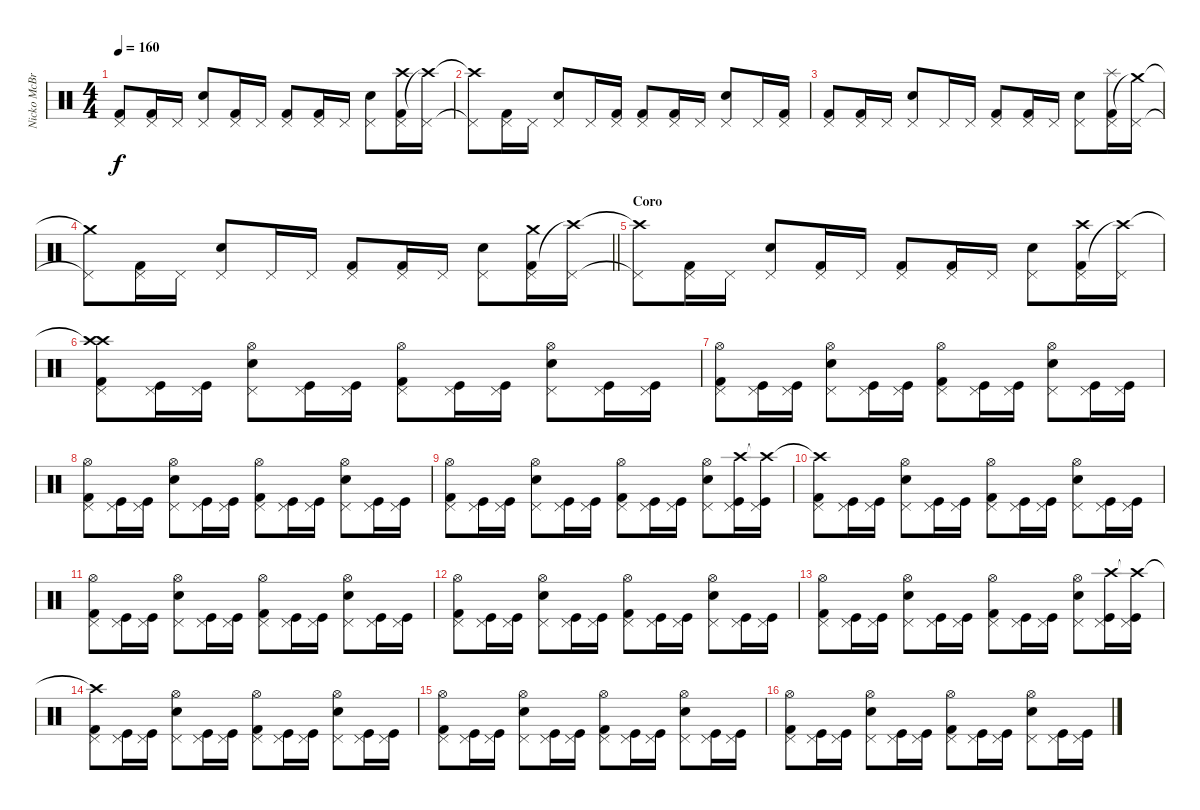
\track ("Nicko McBrain" "Nicko McBr") {instrument percussion}
\staff {score}
\articulation defaults
\ts (4 4)
\tempo 160
\clef neutral
\ks c
("Pedal Hi-Hat (hit)" "Kick (hit) 2").8{dy f} ("Pedal Hi-Hat (hit)" "Kick (hit) 2").16 "Pedal Hi-Hat (hit)".16 ("Pedal Hi-Hat (hit)" "Snare (hit) 2").8 ("Pedal Hi-Hat (hit)" "Kick (hit) 2").16 "Pedal Hi-Hat (hit)".16 ("Pedal Hi-Hat (hit)" "Kick (hit) 2").8 ("Pedal Hi-Hat (hit)" "Kick (hit) 2").16 "Pedal Hi-Hat (hit)".16 ("Pedal Hi-Hat (hit)" "Snare (hit) 2").8 ("Pedal Hi-Hat (hit)" "Kick (hit) 2" "Crash high (hit)").16 ("Pedal Hi-Hat (hit)" "Crash high (hit)"{t}).16 |
("Pedal Hi-Hat (hit)"{t} "Crash high (hit)"{t}).8 ("Pedal Hi-Hat (hit)" "Kick (hit) 2").16 "Pedal Hi-Hat (hit)".16 ("Pedal Hi-Hat (hit)" "Snare (hit) 2").8 "Pedal Hi-Hat (hit)".16 ("Pedal Hi-Hat (hit)" "Kick (hit) 2").16 ("Pedal Hi-Hat (hit)" "Kick (hit) 2").8 ("Pedal Hi-Hat (hit)" "Kick (hit) 2").16 "Pedal Hi-Hat (hit)".16 ("Pedal Hi-Hat (hit)" "Snare (hit) 2").8 "Pedal Hi-Hat (hit)".16 ("Pedal Hi-Hat (hit)" "Kick (hit) 2").16 |
("Pedal Hi-Hat (hit)" "Kick (hit) 2").8 ("Pedal Hi-Hat (hit)" "Kick (hit) 2").16 "Pedal Hi-Hat (hit)".16 ("Pedal Hi-Hat (hit)" "Snare (hit) 2").8 "Pedal Hi-Hat (hit)".16 "Pedal Hi-Hat (hit)".16 ("Pedal Hi-Hat (hit)" "Kick (hit) 2").8 ("Pedal Hi-Hat (hit)" "Kick (hit) 2").16 "Pedal Hi-Hat (hit)".16 ("Pedal Hi-Hat (hit)" "Snare (hit) 2").8 ("Pedal Hi-Hat (hit)" "Kick (hit) 2" "Splash (hit)").16 ("Pedal Hi-Hat (hit)" "Crash medium (hit)"{t}).16 |
\barLineRight lightlight
("Pedal Hi-Hat (hit)"{t} "Crash medium (hit)"{t}).8 ("Pedal Hi-Hat (hit)" "Kick (hit) 2").16 "Pedal Hi-Hat (hit)".16 ("Pedal Hi-Hat (hit)" "Snare (hit) 2").8 "Pedal Hi-Hat (hit)".16 "Pedal Hi-Hat (hit)".16 ("Pedal Hi-Hat (hit)" "Kick (hit) 2").8 ("Pedal Hi-Hat (hit)" "Kick (hit) 2").16 "Pedal Hi-Hat (hit)".16 ("Pedal Hi-Hat (hit)" "Snare (hit) 2").8 ("Pedal Hi-Hat (hit)" "Kick (hit) 2" "Crash medium (hit)").16 ("Pedal Hi-Hat (hit)" "Crash high (hit)"{t}).16 |
\section ("" "Coro")
("Pedal Hi-Hat (hit)"{t} "Crash high (hit)"{t}).8 ("Pedal Hi-Hat (hit)" "Kick (hit) 2").16 "Pedal Hi-Hat (hit)".16 ("Pedal Hi-Hat (hit)" "Snare (hit) 2").8 ("Pedal Hi-Hat (hit)" "Kick (hit) 2").16 "Pedal Hi-Hat (hit)".16 ("Pedal Hi-Hat (hit)" "Kick (hit) 2").8 ("Pedal Hi-Hat (hit)" "Kick (hit) 2").16 "Pedal Hi-Hat (hit)".16 ("Pedal Hi-Hat (hit)" "Snare (hit) 2").8 ("Pedal Hi-Hat (hit)" "Kick (hit) 2" "Crash high (hit)").16 ("Pedal Hi-Hat (hit)" "Crash high (hit)"{t}).16 |
("Pedal Hi-Hat (hit)" "Crash high (hit)"{t} "Kick (hit) 2" "Crash high (hit)").8 ("Kick (hit)" "Pedal Hi-Hat (hit)").16 ("Kick (hit)" "Pedal Hi-Hat (hit)").16 ("Snare (hit) 2" "Pedal Hi-Hat (hit)" "Hi-Hat (open)").8 ("Kick (hit)" "Pedal Hi-Hat (hit)").16 ("Kick (hit)" "Pedal Hi-Hat (hit)").16 ("Kick (hit) 2" "Pedal Hi-Hat (hit)" "Hi-Hat (open)").8 ("Kick (hit)" "Pedal Hi-Hat (hit)").16 ("Kick (hit)" "Pedal Hi-Hat (hit)").16 ("Snare (hit) 2" "Pedal Hi-Hat (hit)" "Hi-Hat (open)").8 ("Kick (hit)" "Pedal Hi-Hat (hit)").16 ("Kick (hit)" "Pedal Hi-Hat (hit)").16 |
("Kick (hit) 2" "Pedal Hi-Hat (hit)" "Hi-Hat (open)").8 ("Kick (hit)" "Pedal Hi-Hat (hit)").16 ("Kick (hit)" "Pedal Hi-Hat (hit)").16 ("Snare (hit) 2" "Pedal Hi-Hat (hit)" "Hi-Hat (open)").8 ("Kick (hit)" "Pedal Hi-Hat (hit)").16 ("Kick (hit)" "Pedal Hi-Hat (hit)").16 ("Kick (hit) 2" "Pedal Hi-Hat (hit)" "Hi-Hat (open)").8 ("Kick (hit)" "Pedal Hi-Hat (hit)").16 ("Kick (hit)" "Pedal Hi-Hat (hit)").16 ("Snare (hit) 2" "Pedal Hi-Hat (hit)" "Hi-Hat (open)").8 ("Kick (hit)" "Pedal Hi-Hat (hit)").16 ("Kick (hit)" "Pedal Hi-Hat (hit)").16 |
("Kick (hit) 2" "Pedal Hi-Hat (hit)" "Hi-Hat (open)").8 ("Kick (hit)" "Pedal Hi-Hat (hit)").16 ("Kick (hit)" "Pedal Hi-Hat (hit)").16 ("Snare (hit) 2" "Pedal Hi-Hat (hit)" "Hi-Hat (open)").8 ("Kick (hit)" "Pedal Hi-Hat (hit)").16 ("Kick (hit)" "Pedal Hi-Hat (hit)").16 ("Kick (hit) 2" "Pedal Hi-Hat (hit)" "Hi-Hat (open)").8 ("Kick (hit)" "Pedal Hi-Hat (hit)").16 ("Kick (hit)" "Pedal Hi-Hat (hit)").16 ("Snare (hit) 2" "Pedal Hi-Hat (hit)" "Hi-Hat (open)").8 ("Kick (hit)" "Pedal Hi-Hat (hit)").16 ("Kick (hit)" "Pedal Hi-Hat (hit)").16 |
("Kick (hit) 2" "Pedal Hi-Hat (hit)" "Hi-Hat (open)").8 ("Kick (hit)" "Pedal Hi-Hat (hit)").16 ("Kick (hit)" "Pedal Hi-Hat (hit)").16 ("Snare (hit) 2" "Pedal Hi-Hat (hit)" "Hi-Hat (open)").8 ("Kick (hit)" "Pedal Hi-Hat (hit)").16 ("Kick (hit)" "Pedal Hi-Hat (hit)").16 ("Kick (hit) 2" "Pedal Hi-Hat (hit)" "Hi-Hat (open)").8 ("Kick (hit)" "Pedal Hi-Hat (hit)").16 ("Kick (hit)" "Pedal Hi-Hat (hit)").16 ("Snare (hit) 2" "Pedal Hi-Hat (hit)" "Hi-Hat (open)").8 ("Kick (hit)" "Pedal Hi-Hat (hit)" "Crash high (hit)").16 ("Kick (hit)" "Pedal Hi-Hat (hit)" "Crash high (hit)"{t}).16 |
("Kick (hit) 2" "Pedal Hi-Hat (hit)" "Crash high (hit)"{t}).8 ("Kick (hit)" "Pedal Hi-Hat (hit)").16 ("Kick (hit)" "Pedal Hi-Hat (hit)").16 ("Snare (hit) 2" "Pedal Hi-Hat (hit)" "Hi-Hat (open)").8 ("Kick (hit)" "Pedal Hi-Hat (hit)").16 ("Kick (hit)" "Pedal Hi-Hat (hit)").16 ("Kick (hit) 2" "Pedal Hi-Hat (hit)" "Hi-Hat (open)").8 ("Kick (hit)" "Pedal Hi-Hat (hit)").16 ("Kick (hit)" "Pedal Hi-Hat (hit)").16 ("Snare (hit) 2" "Pedal Hi-Hat (hit)" "Hi-Hat (open)").8 ("Kick (hit)" "Pedal Hi-Hat (hit)").16 ("Kick (hit)" "Pedal Hi-Hat (hit)").16 |
("Kick (hit) 2" "Pedal Hi-Hat (hit)" "Hi-Hat (open)").8 ("Kick (hit)" "Pedal Hi-Hat (hit)").16 ("Kick (hit)" "Pedal Hi-Hat (hit)").16 ("Snare (hit) 2" "Pedal Hi-Hat (hit)" "Hi-Hat (open)").8 ("Kick (hit)" "Pedal Hi-Hat (hit)").16 ("Kick (hit)" "Pedal Hi-Hat (hit)").16 ("Kick (hit) 2" "Pedal Hi-Hat (hit)" "Hi-Hat (open)").8 ("Kick (hit)" "Pedal Hi-Hat (hit)").16 ("Kick (hit)" "Pedal Hi-Hat (hit)").16 ("Snare (hit) 2" "Pedal Hi-Hat (hit)" "Hi-Hat (open)").8 ("Kick (hit)" "Pedal Hi-Hat (hit)").16 ("Kick (hit)" "Pedal Hi-Hat (hit)").16 |
("Kick (hit) 2" "Pedal Hi-Hat (hit)" "Hi-Hat (open)").8 ("Kick (hit)" "Pedal Hi-Hat (hit)").16 ("Kick (hit)" "Pedal Hi-Hat (hit)").16 ("Snare (hit) 2" "Pedal Hi-Hat (hit)" "Hi-Hat (open)").8 ("Kick (hit)" "Pedal Hi-Hat (hit)").16 ("Kick (hit)" "Pedal Hi-Hat (hit)").16 ("Kick (hit) 2" "Pedal Hi-Hat (hit)" "Hi-Hat (open)").8 ("Kick (hit)" "Pedal Hi-Hat (hit)").16 ("Kick (hit)" "Pedal Hi-Hat (hit)").16 ("Snare (hit) 2" "Pedal Hi-Hat (hit)" "Hi-Hat (open)").8 ("Kick (hit)" "Pedal Hi-Hat (hit)").16 ("Kick (hit)" "Pedal Hi-Hat (hit)").16 |
("Kick (hit) 2" "Pedal Hi-Hat (hit)" "Hi-Hat (open)").8 ("Kick (hit)" "Pedal Hi-Hat (hit)").16 ("Kick (hit)" "Pedal Hi-Hat (hit)").16 ("Snare (hit) 2" "Pedal Hi-Hat (hit)" "Hi-Hat (open)").8 ("Kick (hit)" "Pedal Hi-Hat (hit)").16 ("Kick (hit)" "Pedal Hi-Hat (hit)").16 ("Kick (hit) 2" "Pedal Hi-Hat (hit)" "Hi-Hat (open)").8 ("Kick (hit)" "Pedal Hi-Hat (hit)").16 ("Kick (hit)" "Pedal Hi-Hat (hit)").16 ("Snare (hit) 2" "Pedal Hi-Hat (hit)" "Hi-Hat (open)").8 ("Kick (hit)" "Pedal Hi-Hat (hit)" "Crash high (hit)").16 ("Kick (hit)" "Pedal Hi-Hat (hit)" "Crash high (hit)"{t}).16 |
("Kick (hit) 2" "Pedal Hi-Hat (hit)" "Crash high (hit)"{t}).8 ("Kick (hit)" "Pedal Hi-Hat (hit)").16 ("Kick (hit)" "Pedal Hi-Hat (hit)").16 ("Snare (hit) 2" "Pedal Hi-Hat (hit)" "Hi-Hat (open)").8 ("Kick (hit)" "Pedal Hi-Hat (hit)").16 ("Kick (hit)" "Pedal Hi-Hat (hit)").16 ("Kick (hit) 2" "Pedal Hi-Hat (hit)" "Hi-Hat (open)").8 ("Kick (hit)" "Pedal Hi-Hat (hit)").16 ("Kick (hit)" "Pedal Hi-Hat (hit)").16 ("Snare (hit) 2" "Pedal Hi-Hat (hit)" "Hi-Hat (open)").8 ("Kick (hit)" "Pedal Hi-Hat (hit)").16 ("Kick (hit)" "Pedal Hi-Hat (hit)").16 |
("Kick (hit) 2" "Pedal Hi-Hat (hit)" "Hi-Hat (open)").8 ("Kick (hit)" "Pedal Hi-Hat (hit)").16 ("Kick (hit)" "Pedal Hi-Hat (hit)").16 ("Snare (hit) 2" "Pedal Hi-Hat (hit)" "Hi-Hat (open)").8 ("Kick (hit)" "Pedal Hi-Hat (hit)").16 ("Kick (hit)" "Pedal Hi-Hat (hit)").16 ("Kick (hit) 2" "Pedal Hi-Hat (hit)" "Hi-Hat (open)").8 ("Kick (hit)" "Pedal Hi-Hat (hit)").16 ("Kick (hit)" "Pedal Hi-Hat (hit)").16 ("Snare (hit) 2" "Pedal Hi-Hat (hit)" "Hi-Hat (open)").8 ("Kick (hit)" "Pedal Hi-Hat (hit)").16 ("Kick (hit)" "Pedal Hi-Hat (hit)").16 |
("Kick (hit) 2" "Pedal Hi-Hat (hit)" "Hi-Hat (open)").8 ("Kick (hit)" "Pedal Hi-Hat (hit)").16 ("Kick (hit)" "Pedal Hi-Hat (hit)").16 ("Snare (hit) 2" "Pedal Hi-Hat (hit)" "Hi-Hat (open)").8 ("Kick (hit)" "Pedal Hi-Hat (hit)").16 ("Kick (hit)" "Pedal Hi-Hat (hit)").16 ("Kick (hit) 2" "Pedal Hi-Hat (hit)" "Hi-Hat (open)").8 ("Kick (hit)" "Pedal Hi-Hat (hit)").16 ("Kick (hit)" "Pedal Hi-Hat (hit)").16 ("Snare (hit) 2" "Pedal Hi-Hat (hit)" "Hi-Hat (open)").8 ("Kick (hit)" "Pedal Hi-Hat (hit)").16 ("Kick (hit)" "Pedal Hi-Hat (hit)").16
